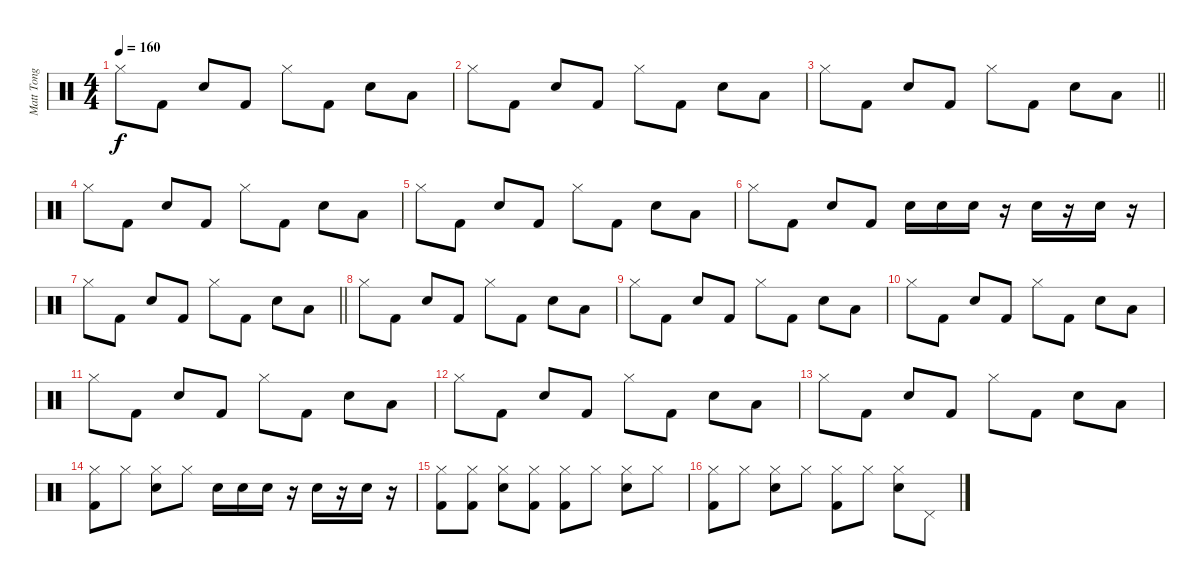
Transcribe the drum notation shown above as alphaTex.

\track ("Matt Tong" "Matt Tong") {instrument percussion}
\staff {score}
\articulation defaults
\ts (4 4)
\tempo 160
\clef neutral
\ks c "Hi-Hat (closed)".8{dy f} "Kick (hit) 2".8 "Snare (hit) 2".8 "Kick (hit) 2".8 "Hi-Hat (closed)".8 "Kick (hit) 2".8 "Snare (hit) 2".8 "Low Tom (hit)".8
|
"Hi-Hat (closed)".8 "Kick (hit) 2".8 "Snare (hit) 2".8 "Kick (hit) 2".8 "Hi-Hat (closed)".8 "Kick (hit) 2".8 "Snare (hit) 2".8 "Low Tom (hit)".8 |
\barLineRight lightlight "Hi-Hat (closed)".8 "Kick (hit) 2".8 "Snare (hit) 2".8 "Kick (hit) 2".8 "Hi-Hat (closed)".8 "Kick (hit) 2".8 "Snare (hit) 2".8 "Low Tom (hit)".8
|
"Hi-Hat (closed)".8 "Kick (hit) 2".8 "Snare (hit) 2".8 "Kick (hit) 2".8 "Hi-Hat (closed)".8 "Kick (hit) 2".8 "Snare (hit) 2".8 "Low Tom (hit)".8 |
"Hi-Hat (closed)".8 "Kick (hit) 2".8 "Snare (hit) 2".8 "Kick (hit) 2".8 "Hi-Hat (closed)".8 "Kick (hit) 2".8 "Snare (hit) 2".8 "Low Tom (hit)".8 |
"Hi-Hat (closed)".8 "Kick (hit) 2".8 "Snare (hit) 2".8 "Kick (hit) 2".8 "Snare (hit) 2".16 "Snare (hit) 2".16 "Snare (hit) 2".16 r.16 "Snare (hit) 2".16 r.16 "Snare (hit) 2".16 r.16 |
\barLineRight lightlight "Hi-Hat (closed)".8 "Kick (hit) 2".8 "Snare (hit) 2".8 "Kick (hit) 2".8 "Hi-Hat (closed)".8 "Kick (hit) 2".8 "Snare (hit) 2".8 "Low Tom (hit)".8
|
"Hi-Hat (closed)".8 "Kick (hit) 2".8 "Snare (hit) 2".8 "Kick (hit) 2".8 "Hi-Hat (closed)".8 "Kick (hit) 2".8 "Snare (hit) 2".8 "Low Tom (hit)".8 |
"Hi-Hat (closed)".8 "Kick (hit) 2".8 "Snare (hit) 2".8 "Kick (hit) 2".8 "Hi-Hat (closed)".8 "Kick (hit) 2".8 "Snare (hit) 2".8 "Low Tom (hit)".8 |
"Hi-Hat (closed)".8 "Kick (hit) 2".8 "Snare (hit) 2".8 "Kick (hit) 2".8 "Hi-Hat (closed)".8 "Kick (hit) 2".8 "Snare (hit) 2".8 "Low Tom (hit)".8 |
"Hi-Hat (closed)".8 "Kick (hit) 2".8 "Snare (hit) 2".8 "Kick (hit) 2".8 "Hi-Hat (closed)".8 "Kick (hit) 2".8 "Snare (hit) 2".8 "Low Tom (hit)".8 |
"Hi-Hat (closed)".8 "Kick (hit) 2".8 "Snare (hit) 2".8 "Kick (hit) 2".8 "Hi-Hat (closed)".8 "Kick (hit) 2".8 "Snare (hit) 2".8 "Low Tom (hit)".8 |
"Hi-Hat (closed)".8 "Kick (hit) 2".8 "Snare (hit) 2".8 "Kick (hit) 2".8 "Hi-Hat (closed)".8 "Kick (hit) 2".8 "Snare (hit) 2".8 "Low Tom (hit)".8 |
("Hi-Hat (closed)" "Kick (hit) 2").8 "Hi-Hat (closed)".8 ("Hi-Hat (closed)" "Snare (hit) 2").8 "Hi-Hat (closed)".8 "Snare (hit) 2".16 "Snare (hit) 2".16 "Snare (hit) 2".16 r.16 "Snare (hit) 2".16 r.16 "Snare (hit) 2".16 r.16 |
("Hi-Hat (closed)" "Kick (hit) 2").8 ("Hi-Hat (closed)" "Kick (hit) 2").8 ("Hi-Hat (closed)" "Snare (hit) 2").8 ("Hi-Hat (closed)" "Kick (hit) 2").8 ("Hi-Hat (closed)" "Kick (hit) 2").8 "Hi-Hat (closed)".8 ("Hi-Hat (closed)" "Snare (hit) 2").8 "Hi-Hat (closed)".8 |
("Hi-Hat (closed)" "Kick (hit) 2").8 "Hi-Hat (closed)".8 ("Hi-Hat (closed)" "Snare (hit) 2").8 "Hi-Hat (closed)".8 ("Hi-Hat (closed)" "Kick (hit) 2").8 "Hi-Hat (closed)".8 ("Hi-Hat (closed)" "Snare (hit) 2").8 "Pedal Hi-Hat (hit)".8
